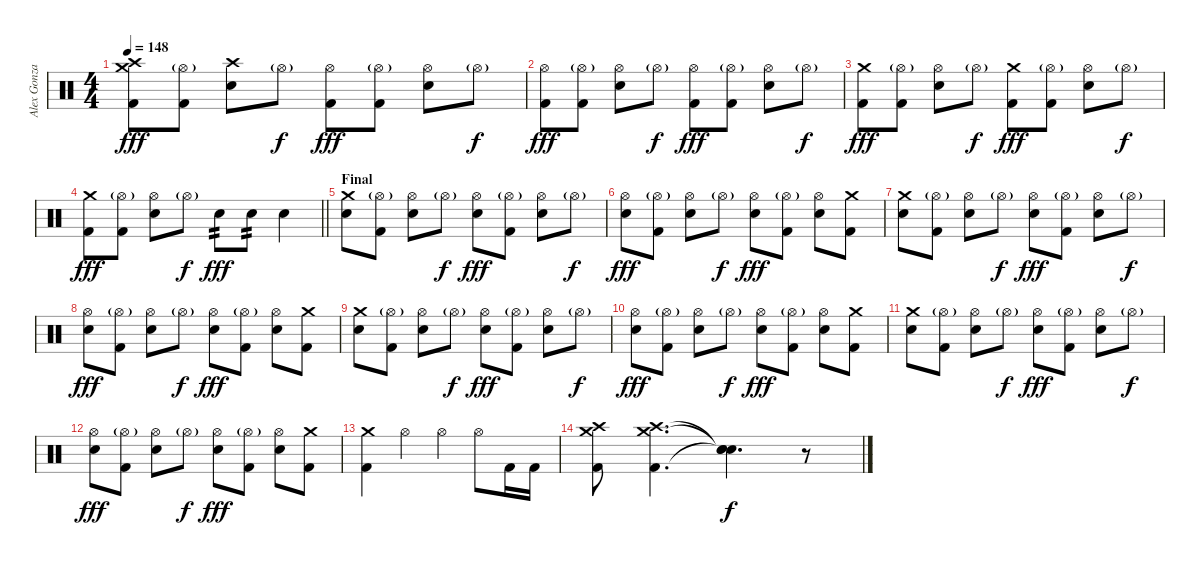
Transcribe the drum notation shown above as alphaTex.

\track ("Alex Gonzalez" "Alex Gonza") {instrument percussion}
\staff {score}
\articulation defaults
\ts (4 4)
\tempo 148
\clef neutral
\ks c
("Crash medium (hit)" "Crash high (hit)" "Kick (hit) 2").8{dy fff} ("Hi-Hat (open)"{g} "Kick (hit) 2").8 ("Crash high (hit)" "Snare (hit) 2").8 "Hi-Hat (open)"{g}.8{dy f} ("Hi-Hat (open)" "Kick (hit) 2").8{dy fff} ("Hi-Hat (open)"{g} "Kick (hit) 2").8 ("Hi-Hat (open)" "Snare (hit) 2").8 "Hi-Hat (open)"{g}.8{dy f} |
("Hi-Hat (open)" "Kick (hit) 2").8{dy fff} ("Hi-Hat (open)"{g} "Kick (hit) 2").8 ("Hi-Hat (open)" "Snare (hit) 2").8 "Hi-Hat (open)"{g}.8{dy f} ("Hi-Hat (open)" "Kick (hit) 2").8{dy fff} ("Hi-Hat (open)"{g} "Kick (hit) 2").8 ("Hi-Hat (open)" "Snare (hit) 2").8 "Hi-Hat (open)"{g}.8{dy f} |
("Crash medium (hit)" "Kick (hit) 2").8{dy fff} ("Hi-Hat (open)"{g} "Kick (hit) 2").8 ("Hi-Hat (open)" "Snare (hit) 2").8 "Hi-Hat (open)"{g}.8{dy f} ("Crash medium (hit)" "Kick (hit) 2").8{dy fff} ("Hi-Hat (open)"{g} "Kick (hit) 2").8 ("Hi-Hat (open)" "Snare (hit) 2").8 "Hi-Hat (open)"{g}.8{dy f} |
\barLineRight lightlight
("Crash medium (hit)" "Kick (hit) 2").8{dy fff} ("Hi-Hat (open)"{g} "Kick (hit) 2").8 ("Hi-Hat (open)" "Snare (hit) 2").8 "Hi-Hat (open)"{g}.8{dy f} "Snare (hit) 2".8{tp 2 dy fff} "Snare (hit) 2".8{tp 2} "Snare (hit) 2".4 |
\section ("" "Final")
("Crash medium (hit)" "Snare (hit) 2").8 ("Hi-Hat (open)"{g} "Kick (hit) 2").8 ("Hi-Hat (open)" "Snare (hit) 2").8 "Hi-Hat (open)"{g}.8{dy f} ("Hi-Hat (open)" "Snare (hit) 2").8{dy fff} ("Hi-Hat (open)"{g} "Kick (hit) 2").8 ("Hi-Hat (open)" "Snare (hit) 2").8 "Hi-Hat (open)"{g}.8{dy f} |
("Hi-Hat (open)" "Snare (hit) 2").8{dy fff} ("Hi-Hat (open)"{g} "Kick (hit) 2").8 ("Hi-Hat (open)" "Snare (hit) 2").8 "Hi-Hat (open)"{g}.8{dy f} ("Hi-Hat (open)" "Snare (hit) 2").8{dy fff} ("Hi-Hat (open)"{g} "Kick (hit) 2").8 ("Hi-Hat (open)" "Snare (hit) 2").8 ("Crash medium (hit)" "Kick (hit) 2").8 |
("Crash medium (hit)" "Snare (hit) 2").8 ("Hi-Hat (open)"{g} "Kick (hit) 2").8 ("Hi-Hat (open)" "Snare (hit) 2").8 "Hi-Hat (open)"{g}.8{dy f} ("Hi-Hat (open)" "Snare (hit) 2").8{dy fff} ("Hi-Hat (open)"{g} "Kick (hit) 2").8 ("Hi-Hat (open)" "Snare (hit) 2").8 "Hi-Hat (open)"{g}.8{dy f} |
("Hi-Hat (open)" "Snare (hit) 2").8{dy fff} ("Hi-Hat (open)"{g} "Kick (hit) 2").8 ("Hi-Hat (open)" "Snare (hit) 2").8 "Hi-Hat (open)"{g}.8{dy f} ("Hi-Hat (open)" "Snare (hit) 2").8{dy fff} ("Hi-Hat (open)"{g} "Kick (hit) 2").8 ("Hi-Hat (open)" "Snare (hit) 2").8 ("Crash medium (hit)" "Kick (hit) 2").8 |
("Crash medium (hit)" "Snare (hit) 2").8 ("Hi-Hat (open)"{g} "Kick (hit) 2").8 ("Hi-Hat (open)" "Snare (hit) 2").8 "Hi-Hat (open)"{g}.8{dy f} ("Hi-Hat (open)" "Snare (hit) 2").8{dy fff} ("Hi-Hat (open)"{g} "Kick (hit) 2").8 ("Hi-Hat (open)" "Snare (hit) 2").8 "Hi-Hat (open)"{g}.8{dy f} |
("Hi-Hat (open)" "Snare (hit) 2").8{dy fff} ("Hi-Hat (open)"{g} "Kick (hit) 2").8 ("Hi-Hat (open)" "Snare (hit) 2").8 "Hi-Hat (open)"{g}.8{dy f} ("Hi-Hat (open)" "Snare (hit) 2").8{dy fff} ("Hi-Hat (open)"{g} "Kick (hit) 2").8 ("Hi-Hat (open)" "Snare (hit) 2").8 ("Crash medium (hit)" "Kick (hit) 2").8 |
("Crash medium (hit)" "Snare (hit) 2").8 ("Hi-Hat (open)"{g} "Kick (hit) 2").8 ("Hi-Hat (open)" "Snare (hit) 2").8 "Hi-Hat (open)"{g}.8{dy f} ("Hi-Hat (open)" "Snare (hit) 2").8{dy fff} ("Hi-Hat (open)"{g} "Kick (hit) 2").8 ("Hi-Hat (open)" "Snare (hit) 2").8 "Hi-Hat (open)"{g}.8{dy f} |
("Hi-Hat (open)" "Snare (hit) 2").8{dy fff} ("Hi-Hat (open)"{g} "Kick (hit) 2").8 ("Hi-Hat (open)" "Snare (hit) 2").8 "Hi-Hat (open)"{g}.8{dy f} ("Hi-Hat (open)" "Snare (hit) 2").8{dy fff} ("Hi-Hat (open)"{g} "Kick (hit) 2").8 ("Hi-Hat (open)" "Snare (hit) 2").8 ("Crash medium (hit)" "Kick (hit) 2").8 |
("Crash medium (hit)" "Kick (hit) 2").4 "Hi-Hat (open)".4 "Hi-Hat (open)".4 "Hi-Hat (open)".8 "Kick (hit) 2".16 "Kick (hit) 2".16 |
("Crash medium (hit)" "Crash high (hit)" "Kick (hit) 2").8 ("Crash medium (hit)" "Crash high (hit)" "Kick (hit) 2").4{d} ("Snare (hit)"{t} "Snare (hit)"{t} "Snare (hit)"{t}).4{d dy f} r.8
